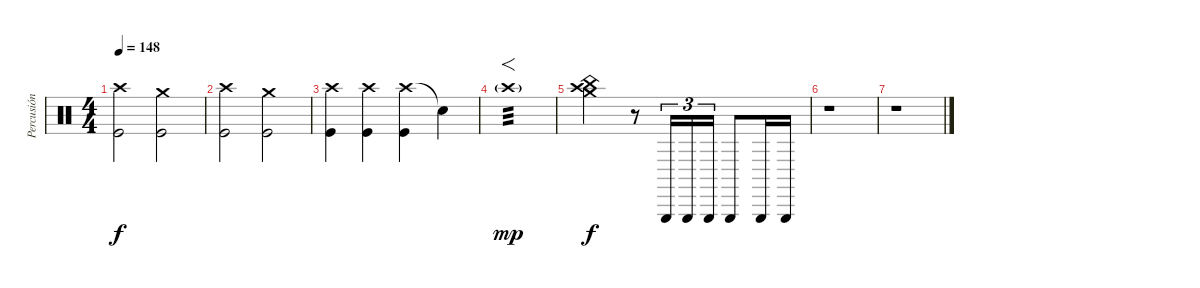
\track ("Percusión" "Percusión") {instrument percussion}
\staff {score}
\articulation defaults
\ts (4 4)
\tempo 148
\clef neutral
\ks c
("Crash high (hit)" "Kick (hit)").2{dy f} ("Crash medium (hit)" "Kick (hit)").2 |
("Crash high (hit)" "Kick (hit)").2 ("Crash medium (hit)" "Kick (hit)").2 |
("Crash high (hit)" "Kick (hit)").4 ("Crash high (hit)" "Kick (hit)").4 ("Crash high (hit)" "Kick (hit)").4 "Snare (hit)"{t}.4 |
"Crash high (hit)"{g}.1{f tp 3 dy mp} |
("Crash medium (hit)" "Crash high (hit)" "China (hit)").2{dy f} r.8 "Triangle (hit)".16{tu (3 2)} "Triangle (hit)".16{tu (3 2)} "Triangle (hit)".16{tu (3 2)} "Triangle (hit)".8 "Triangle (hit)".16 "Triangle (hit)".16 |
r.1 |
r.1
